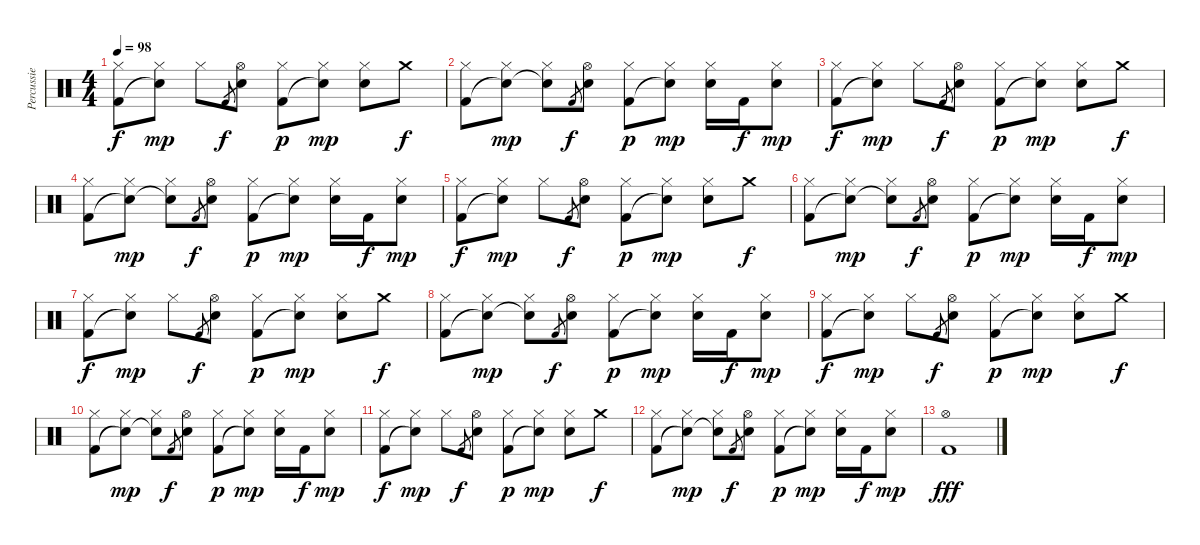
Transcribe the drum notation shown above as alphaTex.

\track ("Percussie" "Percussie") {instrument percussion}
\staff {score}
\articulation defaults
\ts (4 4)
\tempo 98
\clef neutral
\ks c
("Hi-Hat (closed)" "Kick (hit) 2").8{dy f} ("Hi-Hat (closed)" "Snare (hit)"{t}).8{dy mp} "Hi-Hat (closed)".8 "Kick (hit) 2".8{gr dy f} ("Hi-Hat (open)" "Electric Snare (hit)").8 ("Hi-Hat (closed)" "Kick (hit) 2").8{dy p} ("Hi-Hat (closed)" "Snare (hit)"{t}).8{dy mp} ("Hi-Hat (closed)" "Electric Snare (hit)").8 "Crash medium (hit)".8{dy f} |
("Hi-Hat (closed)" "Kick (hit) 2").8 ("Hi-Hat (closed)" "Snare (hit)"{t}).8{dy mp} ("Hi-Hat (closed)" "Snare (hit)"{t}).8 "Kick (hit) 2".8{gr dy f} ("Hi-Hat (open)" "Electric Snare (hit)").8 ("Hi-Hat (closed)" "Kick (hit) 2").8{dy p} ("Hi-Hat (closed)" "Snare (hit)"{t}).8{dy mp} ("Hi-Hat (closed)" "Electric Snare (hit)").16 "Kick (hit) 2".16{dy f} ("Hi-Hat (closed)" "Electric Snare (hit)").8{dy mp} |
("Hi-Hat (closed)" "Kick (hit) 2").8{dy f} ("Hi-Hat (closed)" "Snare (hit)"{t}).8{dy mp} "Hi-Hat (closed)".8 "Kick (hit) 2".8{gr dy f} ("Hi-Hat (open)" "Electric Snare (hit)").8 ("Hi-Hat (closed)" "Kick (hit) 2").8{dy p} ("Hi-Hat (closed)" "Snare (hit)"{t}).8{dy mp} ("Hi-Hat (closed)" "Electric Snare (hit)").8 "Crash medium (hit)".8{dy f} |
("Hi-Hat (closed)" "Kick (hit) 2").8 ("Hi-Hat (closed)" "Snare (hit)"{t}).8{dy mp} ("Hi-Hat (closed)" "Snare (hit)"{t}).8 "Kick (hit) 2".8{gr dy f} ("Hi-Hat (open)" "Electric Snare (hit)").8 ("Hi-Hat (closed)" "Kick (hit) 2").8{dy p} ("Hi-Hat (closed)" "Snare (hit)"{t}).8{dy mp} ("Hi-Hat (closed)" "Electric Snare (hit)").16 "Kick (hit) 2".16{dy f} ("Hi-Hat (closed)" "Electric Snare (hit)").8{dy mp} |
("Hi-Hat (closed)" "Kick (hit) 2").8{dy f} ("Hi-Hat (closed)" "Snare (hit)"{t}).8{dy mp} "Hi-Hat (closed)".8 "Kick (hit) 2".8{gr dy f} ("Hi-Hat (open)" "Electric Snare (hit)").8 ("Hi-Hat (closed)" "Kick (hit) 2").8{dy p} ("Hi-Hat (closed)" "Snare (hit)"{t}).8{dy mp} ("Hi-Hat (closed)" "Electric Snare (hit)").8 "Crash medium (hit)".8{dy f} |
("Hi-Hat (closed)" "Kick (hit) 2").8 ("Hi-Hat (closed)" "Snare (hit)"{t}).8{dy mp} ("Hi-Hat (closed)" "Snare (hit)"{t}).8 "Kick (hit) 2".8{gr dy f} ("Hi-Hat (open)" "Electric Snare (hit)").8 ("Hi-Hat (closed)" "Kick (hit) 2").8{dy p} ("Hi-Hat (closed)" "Snare (hit)"{t}).8{dy mp} ("Hi-Hat (closed)" "Electric Snare (hit)").16 "Kick (hit) 2".16{dy f} ("Hi-Hat (closed)" "Electric Snare (hit)").8{dy mp} |
("Hi-Hat (closed)" "Kick (hit) 2").8{dy f} ("Hi-Hat (closed)" "Snare (hit)"{t}).8{dy mp} "Hi-Hat (closed)".8 "Kick (hit) 2".8{gr dy f} ("Hi-Hat (open)" "Electric Snare (hit)").8 ("Hi-Hat (closed)" "Kick (hit) 2").8{dy p} ("Hi-Hat (closed)" "Snare (hit)"{t}).8{dy mp} ("Hi-Hat (closed)" "Electric Snare (hit)").8 "Crash medium (hit)".8{dy f} |
("Hi-Hat (closed)" "Kick (hit) 2").8 ("Hi-Hat (closed)" "Snare (hit)"{t}).8{dy mp} ("Hi-Hat (closed)" "Snare (hit)"{t}).8 "Kick (hit) 2".8{gr dy f} ("Hi-Hat (open)" "Electric Snare (hit)").8 ("Hi-Hat (closed)" "Kick (hit) 2").8{dy p} ("Hi-Hat (closed)" "Snare (hit)"{t}).8{dy mp} ("Hi-Hat (closed)" "Electric Snare (hit)").16 "Kick (hit) 2".16{dy f} ("Hi-Hat (closed)" "Electric Snare (hit)").8{dy mp} |
("Hi-Hat (closed)" "Kick (hit) 2").8{dy f} ("Hi-Hat (closed)" "Snare (hit)"{t}).8{dy mp} "Hi-Hat (closed)".8 "Kick (hit) 2".8{gr dy f} ("Hi-Hat (open)" "Electric Snare (hit)").8 ("Hi-Hat (closed)" "Kick (hit) 2").8{dy p} ("Hi-Hat (closed)" "Snare (hit)"{t}).8{dy mp} ("Hi-Hat (closed)" "Electric Snare (hit)").8 "Crash medium (hit)".8{dy f} |
("Hi-Hat (closed)" "Kick (hit) 2").8 ("Hi-Hat (closed)" "Snare (hit)"{t}).8{dy mp} ("Hi-Hat (closed)" "Snare (hit)"{t}).8 "Kick (hit) 2".8{gr dy f} ("Hi-Hat (open)" "Electric Snare (hit)").8 ("Hi-Hat (closed)" "Kick (hit) 2").8{dy p} ("Hi-Hat (closed)" "Snare (hit)"{t}).8{dy mp} ("Hi-Hat (closed)" "Electric Snare (hit)").16 "Kick (hit) 2".16{dy f} ("Hi-Hat (closed)" "Electric Snare (hit)").8{dy mp} |
("Hi-Hat (closed)" "Kick (hit) 2").8{dy f} ("Hi-Hat (closed)" "Snare (hit)"{t}).8{dy mp} "Hi-Hat (closed)".8 "Kick (hit) 2".8{gr dy f} ("Hi-Hat (open)" "Electric Snare (hit)").8 ("Hi-Hat (closed)" "Kick (hit) 2").8{dy p} ("Hi-Hat (closed)" "Snare (hit)"{t}).8{dy mp} ("Hi-Hat (closed)" "Electric Snare (hit)").8 "Crash medium (hit)".8{dy f} |
("Hi-Hat (closed)" "Kick (hit) 2").8 ("Hi-Hat (closed)" "Snare (hit)"{t}).8{dy mp} ("Hi-Hat (closed)" "Snare (hit)"{t}).8 "Kick (hit) 2".8{gr dy f} ("Hi-Hat (open)" "Electric Snare (hit)").8 ("Hi-Hat (closed)" "Kick (hit) 2").8{dy p} ("Hi-Hat (closed)" "Snare (hit)"{t}).8{dy mp} ("Hi-Hat (closed)" "Electric Snare (hit)").16 "Kick (hit) 2".16{dy f} ("Hi-Hat (closed)" "Electric Snare (hit)").8{dy mp} |
("Hi-Hat (open)" "Kick (hit) 2").1{dy fff}
